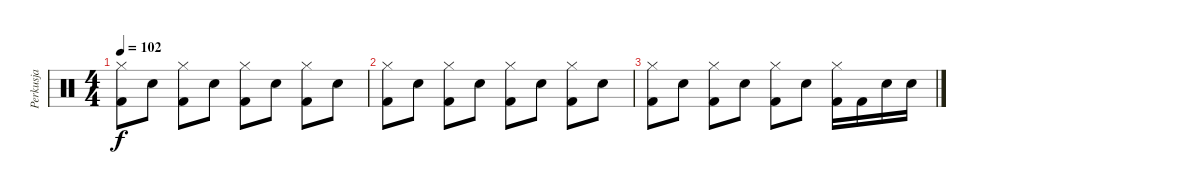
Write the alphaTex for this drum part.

\track ("Perkusja" "Perkusja") {instrument percussion}
\staff {score}
\articulation defaults
\ts (4 4)
\tempo 102
\clef neutral
\ks c
("Kick (hit) 2" "Hi-Hat (closed)").8{dy f} "Snare (hit) 2".8 ("Kick (hit) 2" "Hi-Hat (closed)").8 "Snare (hit) 2".8 ("Kick (hit) 2" "Hi-Hat (closed)").8 "Snare (hit) 2".8 ("Kick (hit) 2" "Hi-Hat (closed)").8 "Snare (hit) 2".8 |
("Kick (hit) 2" "Hi-Hat (closed)").8 "Snare (hit) 2".8 ("Kick (hit) 2" "Hi-Hat (closed)").8 "Snare (hit) 2".8 ("Kick (hit) 2" "Hi-Hat (closed)").8 "Snare (hit) 2".8 ("Kick (hit) 2" "Hi-Hat (closed)").8 "Snare (hit) 2".8 |
("Kick (hit) 2" "Hi-Hat (closed)").8 "Snare (hit) 2".8 ("Kick (hit) 2" "Hi-Hat (closed)").8 "Snare (hit) 2".8 ("Kick (hit) 2" "Hi-Hat (closed)").8 "Snare (hit) 2".8 ("Kick (hit) 2" "Hi-Hat (closed)").16 "Kick (hit) 2".16 "Snare (hit) 2".16 "Snare (hit) 2".16
